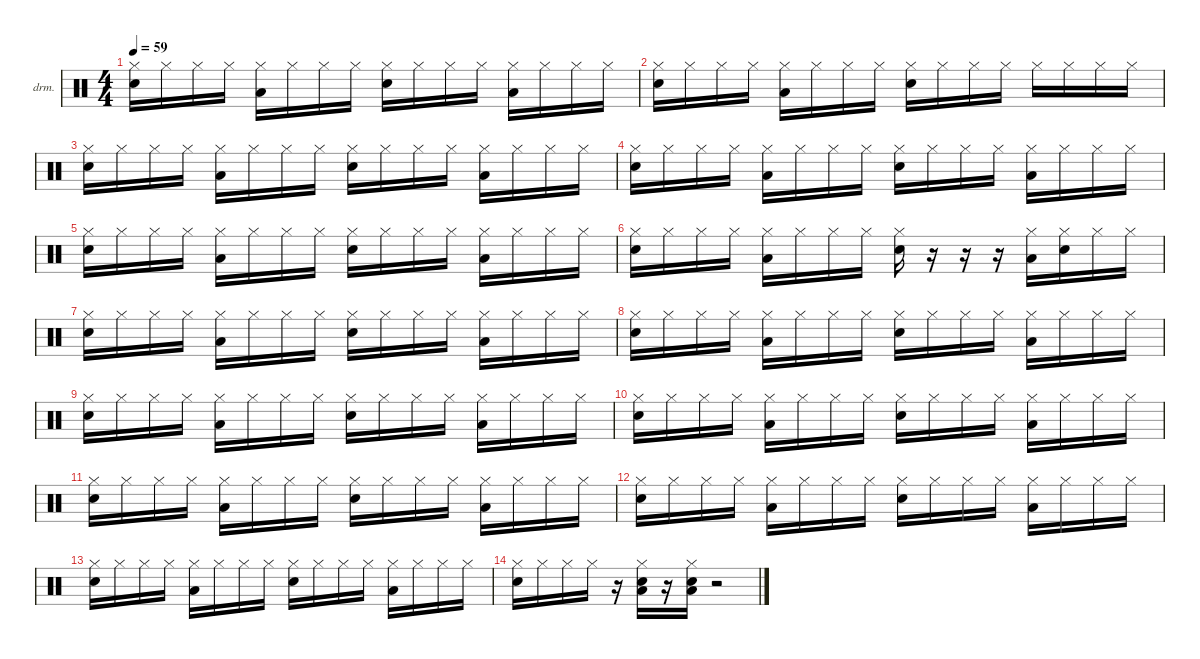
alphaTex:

\hideDynamics
\bracketExtendMode nobrackets
\firstSystemTrackNameOrientation horizontal
\track ("鸥厩扁" "drm.") {instrument percussion}
\staff {score}
\articulation defaults
\ts (4 4)
\tempo 59
\clef neutral
\ks c
("Hi-Hat (closed)" "Snare (hit) 2").16{dy f} "Hi-Hat (closed)".16 "Hi-Hat (closed)".16 "Hi-Hat (closed)".16 ("Hi-Hat (closed)" "Low Floor Tom (hit)").16 "Hi-Hat (closed)".16 "Hi-Hat (closed)".16 "Hi-Hat (closed)".16 ("Hi-Hat (closed)" "Snare (hit) 2").16 "Hi-Hat (closed)".16 "Hi-Hat (closed)".16 "Hi-Hat (closed)".16 ("Hi-Hat (closed)" "Low Floor Tom (hit)").16 "Hi-Hat (closed)".16 "Hi-Hat (closed)".16 "Hi-Hat (closed)".16 |
("Hi-Hat (closed)" "Snare (hit) 2").16 "Hi-Hat (closed)".16 "Hi-Hat (closed)".16 "Hi-Hat (closed)".16 ("Hi-Hat (closed)" "Low Floor Tom (hit)").16 "Hi-Hat (closed)".16 "Hi-Hat (closed)".16 "Hi-Hat (closed)".16 ("Hi-Hat (closed)" "Snare (hit) 2").16 "Hi-Hat (closed)".16 "Hi-Hat (closed)".16 "Hi-Hat (closed)".16 "Hi-Hat (closed)".16 "Hi-Hat (closed)".16 "Hi-Hat (closed)".16 "Hi-Hat (closed)".16 |
("Hi-Hat (closed)" "Snare (hit) 2").16 "Hi-Hat (closed)".16 "Hi-Hat (closed)".16 "Hi-Hat (closed)".16 ("Hi-Hat (closed)" "Low Floor Tom (hit)").16 "Hi-Hat (closed)".16 "Hi-Hat (closed)".16 "Hi-Hat (closed)".16 ("Hi-Hat (closed)" "Snare (hit) 2").16 "Hi-Hat (closed)".16 "Hi-Hat (closed)".16 "Hi-Hat (closed)".16 ("Hi-Hat (closed)" "Low Floor Tom (hit)").16 "Hi-Hat (closed)".16 "Hi-Hat (closed)".16 "Hi-Hat (closed)".16 |
("Hi-Hat (closed)" "Snare (hit) 2").16 "Hi-Hat (closed)".16 "Hi-Hat (closed)".16 "Hi-Hat (closed)".16 ("Hi-Hat (closed)" "Low Floor Tom (hit)").16 "Hi-Hat (closed)".16 "Hi-Hat (closed)".16 "Hi-Hat (closed)".16 ("Hi-Hat (closed)" "Snare (hit) 2").16 "Hi-Hat (closed)".16 "Hi-Hat (closed)".16 "Hi-Hat (closed)".16 ("Hi-Hat (closed)" "Low Floor Tom (hit)").16 "Hi-Hat (closed)".16 "Hi-Hat (closed)".16 "Hi-Hat (closed)".16 |
("Hi-Hat (closed)" "Snare (hit) 2").16 "Hi-Hat (closed)".16 "Hi-Hat (closed)".16 "Hi-Hat (closed)".16 ("Hi-Hat (closed)" "Low Floor Tom (hit)").16 "Hi-Hat (closed)".16 "Hi-Hat (closed)".16 "Hi-Hat (closed)".16 ("Hi-Hat (closed)" "Snare (hit) 2").16 "Hi-Hat (closed)".16 "Hi-Hat (closed)".16 "Hi-Hat (closed)".16 ("Hi-Hat (closed)" "Low Floor Tom (hit)").16 "Hi-Hat (closed)".16 "Hi-Hat (closed)".16 "Hi-Hat (closed)".16 |
("Hi-Hat (closed)" "Snare (hit) 2").16 "Hi-Hat (closed)".16 "Hi-Hat (closed)".16 "Hi-Hat (closed)".16 ("Hi-Hat (closed)" "Low Floor Tom (hit)").16 "Hi-Hat (closed)".16 "Hi-Hat (closed)".16 "Hi-Hat (closed)".16 ("Hi-Hat (closed)" "Snare (hit) 2").16 r.16 r.16 r.16 ("Hi-Hat (closed)" "Low Floor Tom (hit)").16 ("Hi-Hat (closed)" "Snare (hit) 2").16 "Hi-Hat (closed)".16 "Hi-Hat (closed)".16 |
("Hi-Hat (closed)" "Snare (hit) 2").16 "Hi-Hat (closed)".16 "Hi-Hat (closed)".16 "Hi-Hat (closed)".16 ("Hi-Hat (closed)" "Low Floor Tom (hit)").16 "Hi-Hat (closed)".16 "Hi-Hat (closed)".16 "Hi-Hat (closed)".16 ("Hi-Hat (closed)" "Snare (hit) 2").16 "Hi-Hat (closed)".16 "Hi-Hat (closed)".16 "Hi-Hat (closed)".16 ("Hi-Hat (closed)" "Low Floor Tom (hit)").16 "Hi-Hat (closed)".16 "Hi-Hat (closed)".16 "Hi-Hat (closed)".16 |
("Hi-Hat (closed)" "Snare (hit) 2").16 "Hi-Hat (closed)".16 "Hi-Hat (closed)".16 "Hi-Hat (closed)".16 ("Hi-Hat (closed)" "Low Floor Tom (hit)").16 "Hi-Hat (closed)".16 "Hi-Hat (closed)".16 "Hi-Hat (closed)".16 ("Hi-Hat (closed)" "Snare (hit) 2").16 "Hi-Hat (closed)".16 "Hi-Hat (closed)".16 "Hi-Hat (closed)".16 ("Hi-Hat (closed)" "Low Floor Tom (hit)").16 "Hi-Hat (closed)".16 "Hi-Hat (closed)".16 "Hi-Hat (closed)".16 |
("Hi-Hat (closed)" "Snare (hit) 2").16 "Hi-Hat (closed)".16 "Hi-Hat (closed)".16 "Hi-Hat (closed)".16 ("Hi-Hat (closed)" "Low Floor Tom (hit)").16 "Hi-Hat (closed)".16 "Hi-Hat (closed)".16 "Hi-Hat (closed)".16 ("Hi-Hat (closed)" "Snare (hit) 2").16 "Hi-Hat (closed)".16 "Hi-Hat (closed)".16 "Hi-Hat (closed)".16 ("Hi-Hat (closed)" "Low Floor Tom (hit)").16 "Hi-Hat (closed)".16 "Hi-Hat (closed)".16 "Hi-Hat (closed)".16 |
("Hi-Hat (closed)" "Snare (hit) 2").16 "Hi-Hat (closed)".16 "Hi-Hat (closed)".16 "Hi-Hat (closed)".16 ("Hi-Hat (closed)" "Low Floor Tom (hit)").16 "Hi-Hat (closed)".16 "Hi-Hat (closed)".16 "Hi-Hat (closed)".16 ("Hi-Hat (closed)" "Snare (hit) 2").16 "Hi-Hat (closed)".16 "Hi-Hat (closed)".16 "Hi-Hat (closed)".16 ("Hi-Hat (closed)" "Low Floor Tom (hit)").16 "Hi-Hat (closed)".16 "Hi-Hat (closed)".16 "Hi-Hat (closed)".16 |
("Hi-Hat (closed)" "Snare (hit) 2").16 "Hi-Hat (closed)".16 "Hi-Hat (closed)".16 "Hi-Hat (closed)".16 ("Hi-Hat (closed)" "Low Floor Tom (hit)").16 "Hi-Hat (closed)".16 "Hi-Hat (closed)".16 "Hi-Hat (closed)".16 ("Hi-Hat (closed)" "Snare (hit) 2").16 "Hi-Hat (closed)".16 "Hi-Hat (closed)".16 "Hi-Hat (closed)".16 ("Hi-Hat (closed)" "Low Floor Tom (hit)").16 "Hi-Hat (closed)".16 "Hi-Hat (closed)".16 "Hi-Hat (closed)".16 |
("Hi-Hat (closed)" "Snare (hit) 2").16 "Hi-Hat (closed)".16 "Hi-Hat (closed)".16 "Hi-Hat (closed)".16 ("Hi-Hat (closed)" "Low Floor Tom (hit)").16 "Hi-Hat (closed)".16 "Hi-Hat (closed)".16 "Hi-Hat (closed)".16 ("Hi-Hat (closed)" "Snare (hit) 2").16 "Hi-Hat (closed)".16 "Hi-Hat (closed)".16 "Hi-Hat (closed)".16 ("Hi-Hat (closed)" "Low Floor Tom (hit)").16 "Hi-Hat (closed)".16 "Hi-Hat (closed)".16 "Hi-Hat (closed)".16 |
("Hi-Hat (closed)" "Snare (hit) 2").16 "Hi-Hat (closed)".16 "Hi-Hat (closed)".16 "Hi-Hat (closed)".16 ("Hi-Hat (closed)" "Low Floor Tom (hit)").16 "Hi-Hat (closed)".16 "Hi-Hat (closed)".16 "Hi-Hat (closed)".16 ("Hi-Hat (closed)" "Snare (hit) 2").16 "Hi-Hat (closed)".16 "Hi-Hat (closed)".16 "Hi-Hat (closed)".16 ("Hi-Hat (closed)" "Low Floor Tom (hit)").16 "Hi-Hat (closed)".16 "Hi-Hat (closed)".16 "Hi-Hat (closed)".16 |
("Hi-Hat (closed)" "Snare (hit) 2").16 "Hi-Hat (closed)".16 "Hi-Hat (closed)".16 "Hi-Hat (closed)".16 r.16 ("Hi-Hat (closed)" "Snare (hit) 2" "Low Floor Tom (hit)").16 r.16 ("Hi-Hat (closed)" "Snare (hit) 2" "Low Floor Tom (hit)").16 r.2
